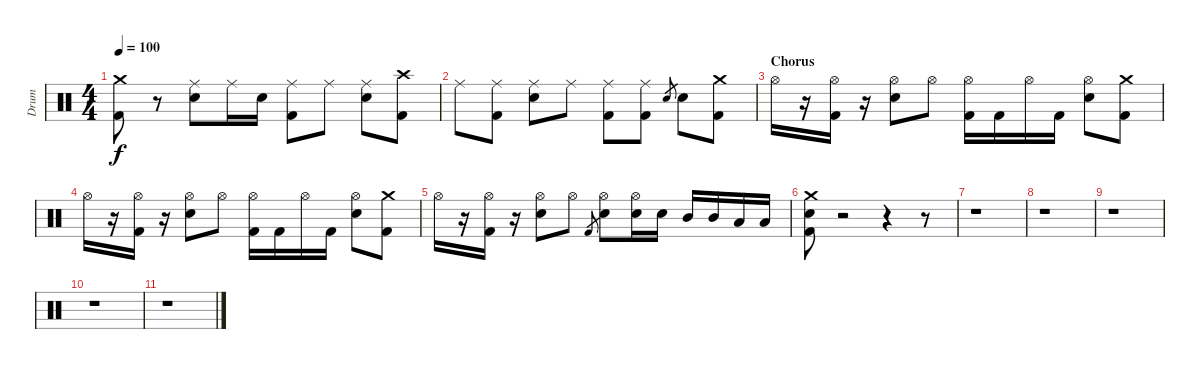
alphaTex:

\track ("Drum" "Drum") {instrument percussion}
\staff {score}
\articulation defaults
\ts (4 4)
\tempo 100
\clef neutral
\ks c
("Crash medium (hit)" "Kick (hit) 2").8{dy f} r.8 ("Ride (middle)" "Snare (hit) 2").8 "Ride (middle)".16 "Snare (hit) 2".16 ("Ride (middle)" "Kick (hit) 2").8 "Ride (middle)".8 ("Ride (middle)" "Snare (hit) 2").8 ("Crash high (hit)" "Kick (hit) 2").8 |
"Ride (middle)".8 ("Ride (middle)" "Kick (hit) 2").8 ("Ride (middle)" "Snare (hit) 2").8 "Ride (middle)".8 ("Ride (middle)" "Kick (hit) 2").8 ("Ride (middle)" "Kick (hit) 2").8 "Snare (hit) 2".8{gr} "Snare (hit) 2".8 ("Crash medium (hit)" "Kick (hit) 2").8 |
\section ("" "Chorus")
"Hi-Hat (open)".16 r.16 ("Hi-Hat (open)" "Kick (hit) 2").16 r.16 ("Hi-Hat (open)" "Snare (hit) 2").8 "Hi-Hat (open)".8 ("Hi-Hat (open)" "Kick (hit) 2").16 "Kick (hit) 2".16 "Hi-Hat (open)".16 "Kick (hit) 2".16 ("Hi-Hat (open)" "Snare (hit) 2").8 ("Crash medium (hit)" "Kick (hit) 2").8 |
"Hi-Hat (open)".16 r.16 ("Hi-Hat (open)" "Kick (hit) 2").16 r.16 ("Hi-Hat (open)" "Snare (hit) 2").8 "Hi-Hat (open)".8 ("Hi-Hat (open)" "Kick (hit) 2").16 "Kick (hit) 2".16 "Hi-Hat (open)".16 "Kick (hit) 2".16 ("Hi-Hat (open)" "Snare (hit) 2").8 ("Crash medium (hit)" "Kick (hit) 2").8 |
"Hi-Hat (open)".16 r.16 ("Hi-Hat (open)" "Kick (hit) 2").16 r.16 ("Hi-Hat (open)" "Snare (hit) 2").8 "Hi-Hat (open)".8 "Kick (hit) 2".8{gr} ("Hi-Hat (open)" "Snare (hit) 2").8 ("Hi-Hat (open)" "Snare (hit) 2").16 "Snare (hit) 2".16 "Mid Tom (hit)".16 "Mid Tom (hit)".16 "Low Tom (hit)".16 "Low Tom (hit)".16 |
("Crash medium (hit)" "Snare (hit) 2" "Kick (hit) 2").8 r.2 r.4 r.8 |
r.1 |
r.1 |
r.1 |
r.1 |
r.1
